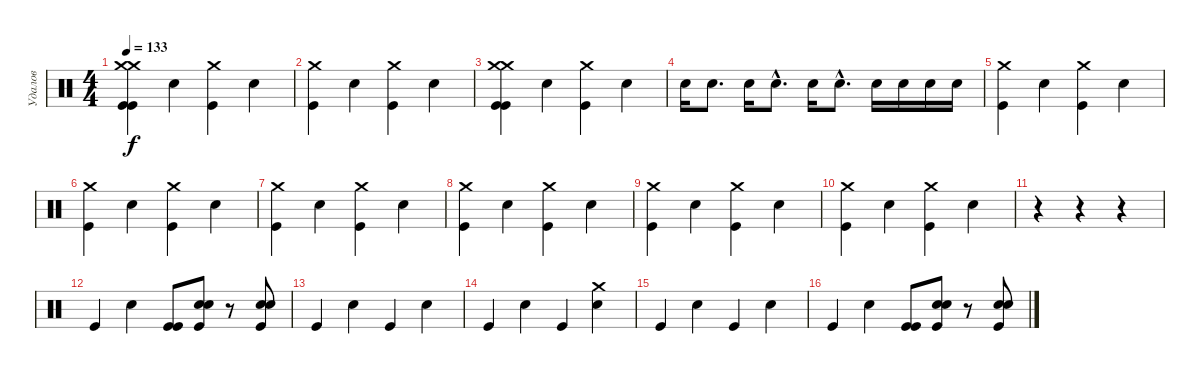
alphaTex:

\track ("Удалов" "Удалов") {instrument percussion}
\staff {score}
\articulation defaults
\ts (4 4)
\tempo 133
\clef neutral
\ks c
("Crash medium (hit)" "Crash medium (hit)" "Kick (hit)" "Kick (hit)").4{dy f} "Electric Snare (hit)".4 ("Crash medium (hit)" "Kick (hit)").4 "Electric Snare (hit)".4 |
("Crash medium (hit)" "Kick (hit)").4 "Electric Snare (hit)".4 ("Crash medium (hit)" "Kick (hit)").4 "Electric Snare (hit)".4 |
("Crash medium (hit)" "Crash medium (hit)" "Kick (hit)" "Kick (hit)").4 "Electric Snare (hit)".4 ("Crash medium (hit)" "Kick (hit)").4 "Electric Snare (hit)".4 |
"Electric Snare (hit)".16 "Electric Snare (hit)".8{d} "Electric Snare (hit)".16 "Electric Snare (hit)"{hac}.8{d} "Electric Snare (hit)".16 "Electric Snare (hit)"{hac}.8{d} "Electric Snare (hit)".16 "Electric Snare (hit)".16 "Electric Snare (hit)".16 "Electric Snare (hit)".16 |
("Crash medium (hit)" "Kick (hit)").4 "Electric Snare (hit)".4 ("Crash medium (hit)" "Kick (hit)").4 "Electric Snare (hit)".4 |
("Crash medium (hit)" "Kick (hit)").4 "Electric Snare (hit)".4 ("Crash medium (hit)" "Kick (hit)").4 "Electric Snare (hit)".4 |
("Crash medium (hit)" "Kick (hit)").4 "Electric Snare (hit)".4 ("Crash medium (hit)" "Kick (hit)").4 "Electric Snare (hit)".4 |
("Crash medium (hit)" "Kick (hit)").4 "Electric Snare (hit)".4 ("Crash medium (hit)" "Kick (hit)").4 "Electric Snare (hit)".4 |
("Crash medium (hit)" "Kick (hit)").4 "Electric Snare (hit)".4 ("Crash medium (hit)" "Kick (hit)").4 "Electric Snare (hit)".4 |
("Crash medium (hit)" "Kick (hit)").4 "Electric Snare (hit)".4 ("Crash medium (hit)" "Kick (hit)").4 "Electric Snare (hit)".4 |
r.4 r.4 r.4 |
"Kick (hit)".4 "Electric Snare (hit)".4 ("Kick (hit)" "Kick (hit)").8 ("Electric Snare (hit)" "Electric Snare (hit)" "Kick (hit)").8 r.8 ("Electric Snare (hit)" "Electric Snare (hit)" "Kick (hit)").8 |
"Kick (hit)".4 "Electric Snare (hit)".4 "Kick (hit)".4 "Electric Snare (hit)".4 |
"Kick (hit)".4 "Electric Snare (hit)".4 "Kick (hit)".4 ("Crash medium (hit)" "Electric Snare (hit)").4 |
"Kick (hit)".4 "Electric Snare (hit)".4 "Kick (hit)".4 "Electric Snare (hit)".4 |
"Kick (hit)".4 "Electric Snare (hit)".4 ("Kick (hit)" "Kick (hit)").8 ("Electric Snare (hit)" "Electric Snare (hit)" "Kick (hit)").8 r.8 ("Electric Snare (hit)" "Electric Snare (hit)" "Kick (hit)").8
